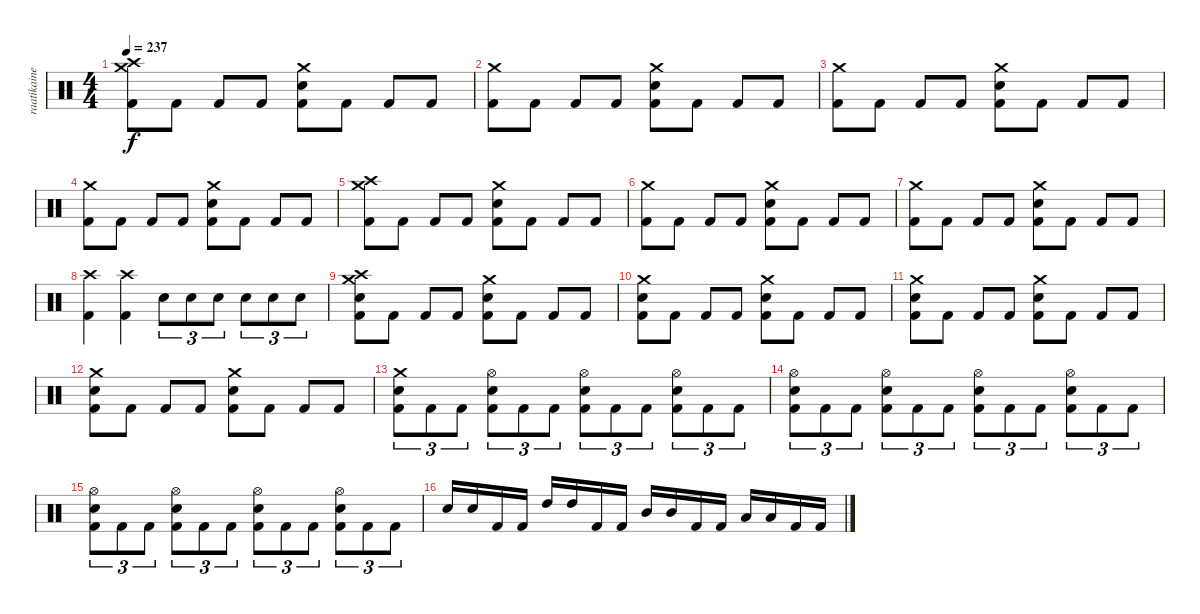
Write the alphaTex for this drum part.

\track ("raatikainen" "raatikaine") {instrument percussion}
\staff {score}
\articulation defaults
\ts (4 4)
\tempo 237
\clef neutral
\ks c
("Crash high (hit)" "Crash medium (hit)" "Kick (hit) 2").8{dy f} "Kick (hit) 2".8 "Kick (hit) 2".8 "Kick (hit) 2".8 ("Crash medium (hit)" "Snare (hit) 2" "Kick (hit) 2").8 "Kick (hit) 2".8 "Kick (hit) 2".8 "Kick (hit) 2".8 |
("Crash medium (hit)" "Kick (hit) 2").8 "Kick (hit) 2".8 "Kick (hit) 2".8 "Kick (hit) 2".8 ("Crash medium (hit)" "Snare (hit) 2" "Kick (hit) 2").8 "Kick (hit) 2".8 "Kick (hit) 2".8 "Kick (hit) 2".8 |
("Crash medium (hit)" "Kick (hit) 2").8 "Kick (hit) 2".8 "Kick (hit) 2".8 "Kick (hit) 2".8 ("Crash medium (hit)" "Snare (hit) 2" "Kick (hit) 2").8 "Kick (hit) 2".8 "Kick (hit) 2".8 "Kick (hit) 2".8 |
("Crash medium (hit)" "Kick (hit) 2").8 "Kick (hit) 2".8 "Kick (hit) 2".8 "Kick (hit) 2".8 ("Crash medium (hit)" "Snare (hit) 2" "Kick (hit) 2").8 "Kick (hit) 2".8 "Kick (hit) 2".8 "Kick (hit) 2".8 |
("Crash high (hit)" "Crash medium (hit)" "Kick (hit) 2").8 "Kick (hit) 2".8 "Kick (hit) 2".8 "Kick (hit) 2".8 ("Crash medium (hit)" "Snare (hit) 2" "Kick (hit) 2").8 "Kick (hit) 2".8 "Kick (hit) 2".8 "Kick (hit) 2".8 |
("Crash medium (hit)" "Kick (hit) 2").8 "Kick (hit) 2".8 "Kick (hit) 2".8 "Kick (hit) 2".8 ("Crash medium (hit)" "Snare (hit) 2" "Kick (hit) 2").8 "Kick (hit) 2".8 "Kick (hit) 2".8 "Kick (hit) 2".8 |
("Crash medium (hit)" "Kick (hit) 2").8 "Kick (hit) 2".8 "Kick (hit) 2".8 "Kick (hit) 2".8 ("Crash medium (hit)" "Snare (hit) 2" "Kick (hit) 2").8 "Kick (hit) 2".8 "Kick (hit) 2".8 "Kick (hit) 2".8 |
("Crash high (hit)" "Kick (hit) 2").4 ("Crash high (hit)" "Kick (hit) 2").4 "Snare (hit) 2".8{tu (3 2)} "Snare (hit) 2".8{tu (3 2)} "Snare (hit) 2".8{tu (3 2)} "Snare (hit) 2".8{tu (3 2)} "Snare (hit) 2".8{tu (3 2)} "Snare (hit) 2".8{tu (3 2)} |
("Crash high (hit)" "Crash medium (hit)" "Snare (hit) 2" "Kick (hit) 2").8 "Kick (hit) 2".8 "Kick (hit) 2".8 "Kick (hit) 2".8 ("Crash medium (hit)" "Snare (hit) 2" "Kick (hit) 2").8 "Kick (hit) 2".8 "Kick (hit) 2".8 "Kick (hit) 2".8 |
("Crash medium (hit)" "Snare (hit) 2" "Kick (hit) 2").8 "Kick (hit) 2".8 "Kick (hit) 2".8 "Kick (hit) 2".8 ("Crash medium (hit)" "Snare (hit) 2" "Kick (hit) 2").8 "Kick (hit) 2".8 "Kick (hit) 2".8 "Kick (hit) 2".8 |
("Crash medium (hit)" "Snare (hit) 2" "Kick (hit) 2").8 "Kick (hit) 2".8 "Kick (hit) 2".8 "Kick (hit) 2".8 ("Crash medium (hit)" "Snare (hit) 2" "Kick (hit) 2").8 "Kick (hit) 2".8 "Kick (hit) 2".8 "Kick (hit) 2".8 |
("Crash medium (hit)" "Snare (hit) 2" "Kick (hit) 2").8 "Kick (hit) 2".8 "Kick (hit) 2".8 "Kick (hit) 2".8 ("Crash medium (hit)" "Snare (hit) 2" "Kick (hit) 2").8 "Kick (hit) 2".8 "Kick (hit) 2".8 "Kick (hit) 2".8 |
("Crash medium (hit)" "Snare (hit) 2" "Kick (hit) 2").8{tu (3 2)} "Kick (hit) 2".8{tu (3 2)} "Kick (hit) 2".8{tu (3 2)} ("Hi-Hat (open)" "Snare (hit) 2" "Kick (hit) 2").8{tu (3 2)} "Kick (hit) 2".8{tu (3 2)} "Kick (hit) 2".8{tu (3 2)} ("Hi-Hat (open)" "Snare (hit) 2" "Kick (hit) 2").8{tu (3 2)} "Kick (hit) 2".8{tu (3 2)} "Kick (hit) 2".8{tu (3 2)} ("Hi-Hat (open)" "Snare (hit) 2" "Kick (hit) 2").8{tu (3 2)} "Kick (hit) 2".8{tu (3 2)} "Kick (hit) 2".8{tu (3 2)} |
("Hi-Hat (open)" "Snare (hit) 2" "Kick (hit) 2").8{tu (3 2)} "Kick (hit) 2".8{tu (3 2)} "Kick (hit) 2".8{tu (3 2)} ("Hi-Hat (open)" "Snare (hit) 2" "Kick (hit) 2").8{tu (3 2)} "Kick (hit) 2".8{tu (3 2)} "Kick (hit) 2".8{tu (3 2)} ("Hi-Hat (open)" "Snare (hit) 2" "Kick (hit) 2").8{tu (3 2)} "Kick (hit) 2".8{tu (3 2)} "Kick (hit) 2".8{tu (3 2)} ("Hi-Hat (open)" "Snare (hit) 2" "Kick (hit) 2").8{tu (3 2)} "Kick (hit) 2".8{tu (3 2)} "Kick (hit) 2".8{tu (3 2)} |
("Hi-Hat (open)" "Snare (hit) 2" "Kick (hit) 2").8{tu (3 2)} "Kick (hit) 2".8{tu (3 2)} "Kick (hit) 2".8{tu (3 2)} ("Hi-Hat (open)" "Snare (hit) 2" "Kick (hit) 2").8{tu (3 2)} "Kick (hit) 2".8{tu (3 2)} "Kick (hit) 2".8{tu (3 2)} ("Hi-Hat (open)" "Snare (hit) 2" "Kick (hit) 2").8{tu (3 2)} "Kick (hit) 2".8{tu (3 2)} "Kick (hit) 2".8{tu (3 2)} ("Hi-Hat (open)" "Snare (hit) 2" "Kick (hit) 2").8{tu (3 2)} "Kick (hit) 2".8{tu (3 2)} "Kick (hit) 2".8{tu (3 2)} |
"Snare (hit) 2".16 "Snare (hit) 2".16 "Kick (hit) 2".16 "Kick (hit) 2".16 "High Tom (hit)".16 "High Tom (hit)".16 "Kick (hit) 2".16 "Kick (hit) 2".16 "Mid Tom (hit)".16 "Mid Tom (hit)".16 "Kick (hit) 2".16 "Kick (hit) 2".16 "Low Tom (hit)".16 "Low Tom (hit)".16 "Kick (hit) 2".16 "Kick (hit) 2".16
